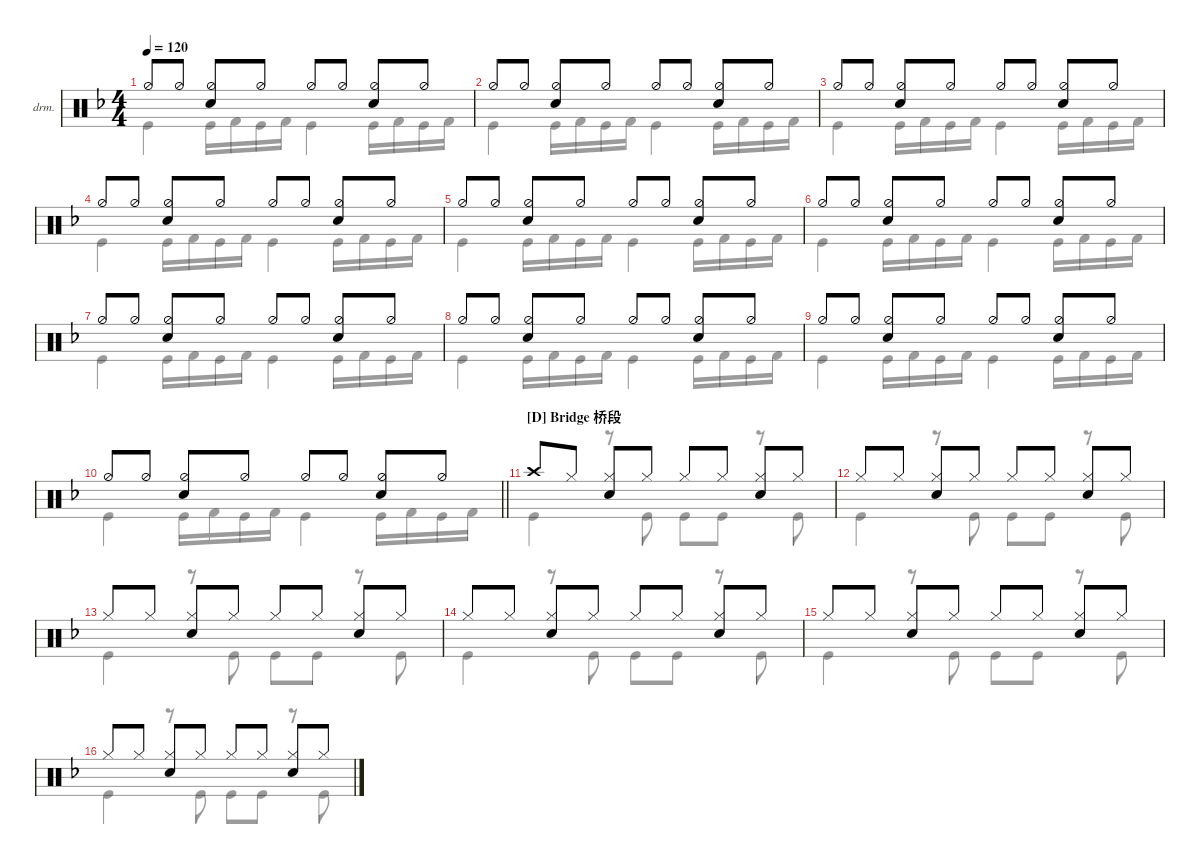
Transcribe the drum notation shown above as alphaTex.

\defaultSystemsLayout 4
\hideDynamics
\bracketExtendMode nobrackets
\firstSystemTrackNameOrientation horizontal
\track ("Drumkit" "drm.") {mute instrument percussion}
\staff {score}
\articulation defaults
\voice
\ts (4 4)
\tempo 120
\clef neutral
\ks dminor "Hi-Hat (half)"{acc forcenatural}.8{dy mf} "Hi-Hat (half)"{acc forcenatural}.8
("Hi-Hat (half)"{acc forcenatural} "Snare (hit) 2"{acc forcenatural}).8 "Hi-Hat (half)"{acc forcenatural}.8 "Hi-Hat (half)"{acc forcenatural}.8 "Hi-Hat (half)"{acc forcenatural}.8 ("Hi-Hat (half)"{acc forcenatural} "Snare (hit) 2"{acc forcenatural}).8 "Hi-Hat (half)"{acc forcenatural}.8 |
"Hi-Hat (half)"{acc forcenatural}.8 "Hi-Hat (half)"{acc forcenatural}.8 ("Hi-Hat (half)"{acc forcenatural} "Snare (hit) 2"{acc forcenatural}).8 "Hi-Hat (half)"{acc forcenatural}.8 "Hi-Hat (half)"{acc forcenatural}.8 "Hi-Hat (half)"{acc forcenatural}.8 ("Hi-Hat (half)"{acc forcenatural} "Snare (hit) 2"{acc forcenatural}).8 "Hi-Hat (half)"{acc forcenatural}.8 |
"Hi-Hat (half)"{acc forcenatural}.8 "Hi-Hat (half)"{acc forcenatural}.8 ("Hi-Hat (half)"{acc forcenatural} "Snare (hit) 2"{acc forcenatural}).8 "Hi-Hat (half)"{acc forcenatural}.8 "Hi-Hat (half)"{acc forcenatural}.8 "Hi-Hat (half)"{acc forcenatural}.8 ("Hi-Hat (half)"{acc forcenatural} "Snare (hit) 2"{acc forcenatural}).8 "Hi-Hat (half)"{acc forcenatural}.8 |
"Hi-Hat (half)"{acc forcenatural}.8 "Hi-Hat (half)"{acc forcenatural}.8 ("Hi-Hat (half)"{acc forcenatural} "Snare (hit) 2"{acc forcenatural}).8 "Hi-Hat (half)"{acc forcenatural}.8 "Hi-Hat (half)"{acc forcenatural}.8 "Hi-Hat (half)"{acc forcenatural}.8 ("Hi-Hat (half)"{acc forcenatural} "Snare (hit) 2"{acc forcenatural}).8 "Hi-Hat (half)"{acc forcenatural}.8 |
"Hi-Hat (half)"{acc forcenatural}.8 "Hi-Hat (half)"{acc forcenatural}.8 ("Hi-Hat (half)"{acc forcenatural} "Snare (hit) 2"{acc forcenatural}).8 "Hi-Hat (half)"{acc forcenatural}.8 "Hi-Hat (half)"{acc forcenatural}.8 "Hi-Hat (half)"{acc forcenatural}.8 ("Hi-Hat (half)"{acc forcenatural} "Snare (hit) 2"{acc forcenatural}).8 "Hi-Hat (half)"{acc forcenatural}.8 |
"Hi-Hat (half)"{acc forcenatural}.8 "Hi-Hat (half)"{acc forcenatural}.8 ("Hi-Hat (half)"{acc forcenatural} "Snare (hit) 2"{acc forcenatural}).8 "Hi-Hat (half)"{acc forcenatural}.8 "Hi-Hat (half)"{acc forcenatural}.8 "Hi-Hat (half)"{acc forcenatural}.8 ("Hi-Hat (half)"{acc forcenatural} "Snare (hit) 2"{acc forcenatural}).8 "Hi-Hat (half)"{acc forcenatural}.8 |
"Hi-Hat (half)"{acc forcenatural}.8 "Hi-Hat (half)"{acc forcenatural}.8 ("Hi-Hat (half)"{acc forcenatural} "Snare (hit) 2"{acc forcenatural}).8 "Hi-Hat (half)"{acc forcenatural}.8 "Hi-Hat (half)"{acc forcenatural}.8 "Hi-Hat (half)"{acc forcenatural}.8 ("Hi-Hat (half)"{acc forcenatural} "Snare (hit) 2"{acc forcenatural}).8 "Hi-Hat (half)"{acc forcenatural}.8 |
"Hi-Hat (half)"{acc forcenatural}.8 "Hi-Hat (half)"{acc forcenatural}.8 ("Hi-Hat (half)"{acc forcenatural} "Snare (hit) 2"{acc forcenatural}).8 "Hi-Hat (half)"{acc forcenatural}.8 "Hi-Hat (half)"{acc forcenatural}.8 "Hi-Hat (half)"{acc forcenatural}.8 ("Hi-Hat (half)"{acc forcenatural} "Snare (hit) 2"{acc forcenatural}).8 "Hi-Hat (half)"{acc forcenatural}.8 |
"Hi-Hat (half)"{acc forcenatural}.8 "Hi-Hat (half)"{acc forcenatural}.8 ("Hi-Hat (half)"{acc forcenatural} "Snare (hit) 2"{acc forcenatural}).8 "Hi-Hat (half)"{acc forcenatural}.8 "Hi-Hat (half)"{acc forcenatural}.8 "Hi-Hat (half)"{acc forcenatural}.8 ("Hi-Hat (half)"{acc forcenatural} "Snare (hit) 2"{acc forcenatural}).8 "Hi-Hat (half)"{acc forcenatural}.8 |
\barLineRight lightlight "Hi-Hat (half)"{acc forcenatural}.8 "Hi-Hat (half)"{acc forcenatural}.8
("Hi-Hat (half)"{acc forcenatural} "Snare (hit) 2"{acc forcenatural}).8 "Hi-Hat (half)"{acc forcenatural}.8 "Hi-Hat (half)"{acc forcenatural}.8 "Hi-Hat (half)"{acc forcenatural}.8 ("Hi-Hat (half)"{acc forcenatural} "Snare (hit) 2"{acc forcenatural}).8 "Hi-Hat (half)"{acc forcenatural}.8 |
\section ("D" "Bridge 桥段")
"Crash high (hit)"{acc forcenatural}.8 "Hi-Hat (closed)"{acc forcenatural}.8 ("Hi-Hat (closed)"{acc forcenatural} "Snare (hit) 2"{acc forcenatural}).8 "Hi-Hat (closed)"{acc forcenatural}.8 "Hi-Hat (closed)"{acc forcenatural}.8 "Hi-Hat (closed)"{acc forcenatural}.8 ("Hi-Hat (closed)"{acc forcenatural} "Snare (hit) 2"{acc forcenatural}).8 "Hi-Hat (closed)"{acc forcenatural}.8 |
"Hi-Hat (closed)"{acc forcenatural}.8 "Hi-Hat (closed)"{acc forcenatural}.8 ("Hi-Hat (closed)"{acc forcenatural} "Snare (hit) 2"{acc forcenatural}).8 "Hi-Hat (closed)"{acc forcenatural}.8 "Hi-Hat (closed)"{acc forcenatural}.8 "Hi-Hat (closed)"{acc forcenatural}.8 ("Hi-Hat (closed)"{acc forcenatural} "Snare (hit) 2"{acc forcenatural}).8 "Hi-Hat (closed)"{acc forcenatural}.8 |
"Hi-Hat (closed)"{acc forcenatural}.8 "Hi-Hat (closed)"{acc forcenatural}.8 ("Hi-Hat (closed)"{acc forcenatural} "Snare (hit) 2"{acc forcenatural}).8 "Hi-Hat (closed)"{acc forcenatural}.8 "Hi-Hat (closed)"{acc forcenatural}.8 "Hi-Hat (closed)"{acc forcenatural}.8 ("Hi-Hat (closed)"{acc forcenatural} "Snare (hit) 2"{acc forcenatural}).8 "Hi-Hat (closed)"{acc forcenatural}.8 |
"Hi-Hat (closed)"{acc forcenatural}.8 "Hi-Hat (closed)"{acc forcenatural}.8 ("Hi-Hat (closed)"{acc forcenatural} "Snare (hit) 2"{acc forcenatural}).8 "Hi-Hat (closed)"{acc forcenatural}.8 "Hi-Hat (closed)"{acc forcenatural}.8 "Hi-Hat (closed)"{acc forcenatural}.8 ("Hi-Hat (closed)"{acc forcenatural} "Snare (hit) 2"{acc forcenatural}).8 "Hi-Hat (closed)"{acc forcenatural}.8 |
"Hi-Hat (closed)"{acc forcenatural}.8 "Hi-Hat (closed)"{acc forcenatural}.8 ("Hi-Hat (closed)"{acc forcenatural} "Snare (hit) 2"{acc forcenatural}).8 "Hi-Hat (closed)"{acc forcenatural}.8 "Hi-Hat (closed)"{acc forcenatural}.8 "Hi-Hat (closed)"{acc forcenatural}.8 ("Hi-Hat (closed)"{acc forcenatural} "Snare (hit) 2"{acc forcenatural}).8 "Hi-Hat (closed)"{acc forcenatural}.8 |
"Hi-Hat (closed)"{acc forcenatural}.8 "Hi-Hat (closed)"{acc forcenatural}.8 ("Hi-Hat (closed)"{acc forcenatural} "Snare (hit) 2"{acc forcenatural}).8 "Hi-Hat (closed)"{acc forcenatural}.8 "Hi-Hat (closed)"{acc forcenatural}.8 "Hi-Hat (closed)"{acc forcenatural}.8 ("Hi-Hat (closed)"{acc forcenatural} "Snare (hit) 2"{acc forcenatural}).8 "Hi-Hat (closed)"{acc forcenatural}.8
\voice
\clef neutral
\ottava regular
\simile none
\ks dminor "Kick (hit)"{acc forcenatural}.4{dy mf} "Kick (hit)"{acc forcenatural}.16 "Kick (hit) 2"{acc forcenatural}.16 "Kick (hit)"{acc forcenatural}.16 "Kick (hit) 2"{acc forcenatural}.16 "Kick (hit)"{acc forcenatural}.4 "Kick (hit)"{acc forcenatural}.16 "Kick (hit) 2"{acc forcenatural}.16 "Kick (hit)"{acc forcenatural}.16 "Kick (hit) 2"{acc forcenatural}.16
|
"Kick (hit)"{acc forcenatural}.4 "Kick (hit)"{acc forcenatural}.16 "Kick (hit) 2"{acc forcenatural}.16 "Kick (hit)"{acc forcenatural}.16 "Kick (hit) 2"{acc forcenatural}.16 "Kick (hit)"{acc forcenatural}.4 "Kick (hit)"{acc forcenatural}.16 "Kick (hit) 2"{acc forcenatural}.16 "Kick (hit)"{acc forcenatural}.16 "Kick (hit) 2"{acc forcenatural}.16 |
"Kick (hit)"{acc forcenatural}.4 "Kick (hit)"{acc forcenatural}.16 "Kick (hit) 2"{acc forcenatural}.16 "Kick (hit)"{acc forcenatural}.16 "Kick (hit) 2"{acc forcenatural}.16 "Kick (hit)"{acc forcenatural}.4 "Kick (hit)"{acc forcenatural}.16 "Kick (hit) 2"{acc forcenatural}.16 "Kick (hit)"{acc forcenatural}.16 "Kick (hit) 2"{acc forcenatural}.16 |
"Kick (hit)"{acc forcenatural}.4 "Kick (hit)"{acc forcenatural}.16 "Kick (hit) 2"{acc forcenatural}.16 "Kick (hit)"{acc forcenatural}.16 "Kick (hit) 2"{acc forcenatural}.16 "Kick (hit)"{acc forcenatural}.4 "Kick (hit)"{acc forcenatural}.16 "Kick (hit) 2"{acc forcenatural}.16 "Kick (hit)"{acc forcenatural}.16 "Kick (hit) 2"{acc forcenatural}.16 |
"Kick (hit)"{acc forcenatural}.4 "Kick (hit)"{acc forcenatural}.16 "Kick (hit) 2"{acc forcenatural}.16 "Kick (hit)"{acc forcenatural}.16 "Kick (hit) 2"{acc forcenatural}.16 "Kick (hit)"{acc forcenatural}.4 "Kick (hit)"{acc forcenatural}.16 "Kick (hit) 2"{acc forcenatural}.16 "Kick (hit)"{acc forcenatural}.16 "Kick (hit) 2"{acc forcenatural}.16 |
"Kick (hit)"{acc forcenatural}.4 "Kick (hit)"{acc forcenatural}.16 "Kick (hit) 2"{acc forcenatural}.16 "Kick (hit)"{acc forcenatural}.16 "Kick (hit) 2"{acc forcenatural}.16 "Kick (hit)"{acc forcenatural}.4 "Kick (hit)"{acc forcenatural}.16 "Kick (hit) 2"{acc forcenatural}.16 "Kick (hit)"{acc forcenatural}.16 "Kick (hit) 2"{acc forcenatural}.16 |
"Kick (hit)"{acc forcenatural}.4 "Kick (hit)"{acc forcenatural}.16 "Kick (hit) 2"{acc forcenatural}.16 "Kick (hit)"{acc forcenatural}.16 "Kick (hit) 2"{acc forcenatural}.16 "Kick (hit)"{acc forcenatural}.4 "Kick (hit)"{acc forcenatural}.16 "Kick (hit) 2"{acc forcenatural}.16 "Kick (hit)"{acc forcenatural}.16 "Kick (hit) 2"{acc forcenatural}.16 |
"Kick (hit)"{acc forcenatural}.4 "Kick (hit)"{acc forcenatural}.16 "Kick (hit) 2"{acc forcenatural}.16 "Kick (hit)"{acc forcenatural}.16 "Kick (hit) 2"{acc forcenatural}.16 "Kick (hit)"{acc forcenatural}.4 "Kick (hit)"{acc forcenatural}.16 "Kick (hit) 2"{acc forcenatural}.16 "Kick (hit)"{acc forcenatural}.16 "Kick (hit) 2"{acc forcenatural}.16 |
"Kick (hit)"{acc forcenatural}.4 "Kick (hit)"{acc forcenatural}.16 "Kick (hit) 2"{acc forcenatural}.16 "Kick (hit)"{acc forcenatural}.16 "Kick (hit) 2"{acc forcenatural}.16 "Kick (hit)"{acc forcenatural}.4 "Kick (hit)"{acc forcenatural}.16 "Kick (hit) 2"{acc forcenatural}.16 "Kick (hit)"{acc forcenatural}.16 "Kick (hit) 2"{acc forcenatural}.16 |
\barLineRight lightlight "Kick (hit)"{acc forcenatural}.4 "Kick (hit)"{acc forcenatural}.16 "Kick (hit) 2"{acc forcenatural}.16 "Kick (hit)"{acc forcenatural}.16 "Kick (hit) 2"{acc forcenatural}.16 "Kick (hit)"{acc forcenatural}.4 "Kick (hit)"{acc forcenatural}.16 "Kick (hit) 2"{acc forcenatural}.16 "Kick (hit)"{acc forcenatural}.16 "Kick (hit) 2"{acc forcenatural}.16
|
"Kick (hit)"{acc forcenatural}.4 r.8 "Kick (hit)"{acc forcenatural}.8 "Kick (hit)"{acc forcenatural}.8 "Kick (hit)"{acc forcenatural}.8 r.8 "Kick (hit)"{acc forcenatural}.8 |
"Kick (hit)"{acc forcenatural}.4 r.8 "Kick (hit)"{acc forcenatural}.8 "Kick (hit)"{acc forcenatural}.8 "Kick (hit)"{acc forcenatural}.8 r.8 "Kick (hit)"{acc forcenatural}.8 |
"Kick (hit)"{acc forcenatural}.4 r.8 "Kick (hit)"{acc forcenatural}.8 "Kick (hit)"{acc forcenatural}.8 "Kick (hit)"{acc forcenatural}.8 r.8 "Kick (hit)"{acc forcenatural}.8 |
"Kick (hit)"{acc forcenatural}.4 r.8 "Kick (hit)"{acc forcenatural}.8 "Kick (hit)"{acc forcenatural}.8 "Kick (hit)"{acc forcenatural}.8 r.8 "Kick (hit)"{acc forcenatural}.8 |
"Kick (hit)"{acc forcenatural}.4 r.8 "Kick (hit)"{acc forcenatural}.8 "Kick (hit)"{acc forcenatural}.8 "Kick (hit)"{acc forcenatural}.8 r.8 "Kick (hit)"{acc forcenatural}.8 |
"Kick (hit)"{acc forcenatural}.4 r.8 "Kick (hit)"{acc forcenatural}.8 "Kick (hit)"{acc forcenatural}.8 "Kick (hit)"{acc forcenatural}.8 r.8 "Kick (hit)"{acc forcenatural}.8
